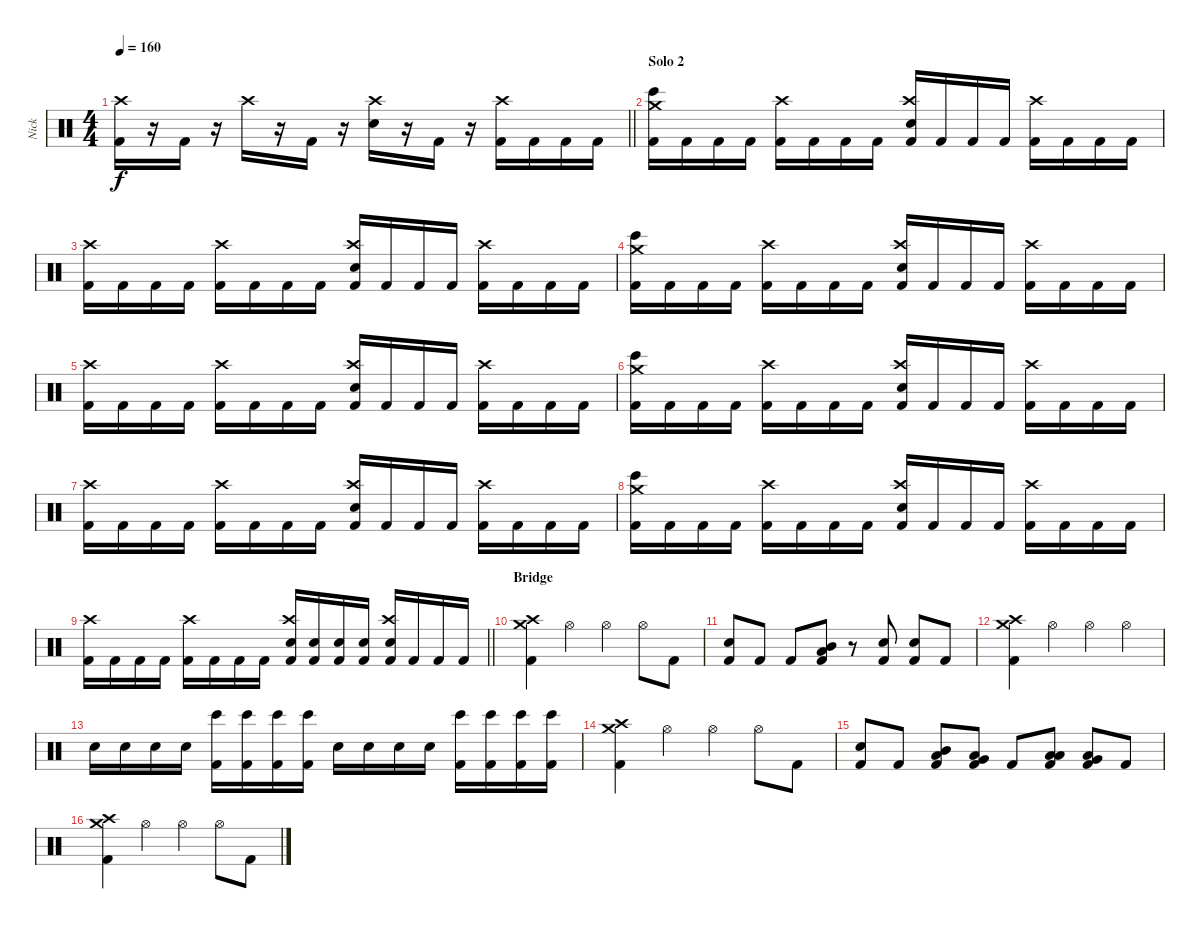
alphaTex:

\track ("Nick" "Nick") {instrument percussion}
\staff {score}
\articulation defaults
\ts (4 4)
\tempo 160
\clef neutral
\barLineRight lightlight
\ks c
("Kick (hit) 2" "Crash high (hit)").16{dy f} r.16 "Kick (hit) 2".16 r.16 "Crash high (hit)".16 r.16 "Kick (hit) 2".16 r.16 ("Electric Snare (hit)" "Crash high (hit)").16 r.16 "Kick (hit) 2".16 r.16 ("Kick (hit) 2" "Crash high (hit)").16 "Kick (hit) 2".16 "Kick (hit) 2".16 "Kick (hit) 2".16 |
\section ("" "Solo 2")
("Kick (hit) 2" "Bongo High (hit)" "Crash medium (hit)").16 "Kick (hit) 2".16 "Kick (hit) 2".16 "Kick (hit) 2".16 ("Kick (hit) 2" "Crash high (hit)").16 "Kick (hit) 2".16 "Kick (hit) 2".16 "Kick (hit) 2".16 ("Kick (hit) 2" "Electric Snare (hit)" "Crash high (hit)").16 "Kick (hit) 2".16 "Kick (hit) 2".16 "Kick (hit) 2".16 ("Kick (hit) 2" "Crash high (hit)").16 "Kick (hit) 2".16 "Kick (hit) 2".16 "Kick (hit) 2".16 |
("Kick (hit) 2" "Crash high (hit)").16 "Kick (hit) 2".16 "Kick (hit) 2".16 "Kick (hit) 2".16 ("Kick (hit) 2" "Crash high (hit)").16 "Kick (hit) 2".16 "Kick (hit) 2".16 "Kick (hit) 2".16 ("Kick (hit) 2" "Electric Snare (hit)" "Crash high (hit)").16 "Kick (hit) 2".16 "Kick (hit) 2".16 "Kick (hit) 2".16 ("Kick (hit) 2" "Crash high (hit)").16 "Kick (hit) 2".16 "Kick (hit) 2".16 "Kick (hit) 2".16 |
("Kick (hit) 2" "Bongo High (hit)" "Crash medium (hit)").16 "Kick (hit) 2".16 "Kick (hit) 2".16 "Kick (hit) 2".16 ("Kick (hit) 2" "Crash high (hit)").16 "Kick (hit) 2".16 "Kick (hit) 2".16 "Kick (hit) 2".16 ("Kick (hit) 2" "Electric Snare (hit)" "Crash high (hit)").16 "Kick (hit) 2".16 "Kick (hit) 2".16 "Kick (hit) 2".16 ("Kick (hit) 2" "Crash high (hit)").16 "Kick (hit) 2".16 "Kick (hit) 2".16 "Kick (hit) 2".16 |
("Kick (hit) 2" "Crash high (hit)").16 "Kick (hit) 2".16 "Kick (hit) 2".16 "Kick (hit) 2".16 ("Kick (hit) 2" "Crash high (hit)").16 "Kick (hit) 2".16 "Kick (hit) 2".16 "Kick (hit) 2".16 ("Kick (hit) 2" "Electric Snare (hit)" "Crash high (hit)").16 "Kick (hit) 2".16 "Kick (hit) 2".16 "Kick (hit) 2".16 ("Kick (hit) 2" "Crash high (hit)").16 "Kick (hit) 2".16 "Kick (hit) 2".16 "Kick (hit) 2".16 |
("Kick (hit) 2" "Bongo High (hit)" "Crash medium (hit)").16 "Kick (hit) 2".16 "Kick (hit) 2".16 "Kick (hit) 2".16 ("Kick (hit) 2" "Crash high (hit)").16 "Kick (hit) 2".16 "Kick (hit) 2".16 "Kick (hit) 2".16 ("Kick (hit) 2" "Electric Snare (hit)" "Crash high (hit)").16 "Kick (hit) 2".16 "Kick (hit) 2".16 "Kick (hit) 2".16 ("Kick (hit) 2" "Crash high (hit)").16 "Kick (hit) 2".16 "Kick (hit) 2".16 "Kick (hit) 2".16 |
("Kick (hit) 2" "Crash high (hit)").16 "Kick (hit) 2".16 "Kick (hit) 2".16 "Kick (hit) 2".16 ("Kick (hit) 2" "Crash high (hit)").16 "Kick (hit) 2".16 "Kick (hit) 2".16 "Kick (hit) 2".16 ("Kick (hit) 2" "Electric Snare (hit)" "Crash high (hit)").16 "Kick (hit) 2".16 "Kick (hit) 2".16 "Kick (hit) 2".16 ("Kick (hit) 2" "Crash high (hit)").16 "Kick (hit) 2".16 "Kick (hit) 2".16 "Kick (hit) 2".16 |
("Kick (hit) 2" "Bongo High (hit)" "Crash medium (hit)").16 "Kick (hit) 2".16 "Kick (hit) 2".16 "Kick (hit) 2".16 ("Kick (hit) 2" "Crash high (hit)").16 "Kick (hit) 2".16 "Kick (hit) 2".16 "Kick (hit) 2".16 ("Kick (hit) 2" "Electric Snare (hit)" "Crash high (hit)").16 "Kick (hit) 2".16 "Kick (hit) 2".16 "Kick (hit) 2".16 ("Kick (hit) 2" "Crash high (hit)").16 "Kick (hit) 2".16 "Kick (hit) 2".16 "Kick (hit) 2".16 |
\barLineRight lightlight
("Kick (hit) 2" "Crash high (hit)").16 "Kick (hit) 2".16 "Kick (hit) 2".16 "Kick (hit) 2".16 ("Kick (hit) 2" "Crash high (hit)").16 "Kick (hit) 2".16 "Kick (hit) 2".16 "Kick (hit) 2".16 ("Kick (hit) 2" "Electric Snare (hit)" "Crash high (hit)").16 ("Kick (hit) 2" "Electric Snare (hit)").16 ("Kick (hit) 2" "Electric Snare (hit)").16 ("Kick (hit) 2" "Electric Snare (hit)").16 ("Kick (hit) 2" "Electric Snare (hit)" "Crash high (hit)").16 "Kick (hit) 2".16 "Kick (hit) 2".16 "Kick (hit) 2".16 |
\section ("" "Bridge")
("Kick (hit) 2" "Crash high (hit)" "Crash medium (hit)").4 "Hi-Hat (open)".4 "Hi-Hat (open)".4 "Hi-Hat (open)".8 "Kick (hit) 2".8 |
("Kick (hit) 2" "Electric Snare (hit)").8 "Kick (hit) 2".8 "Kick (hit) 2".8 ("Kick (hit) 2" "Low Tom (hit)" "Mid Tom (hit)").8 r.8 ("Kick (hit) 2" "Electric Snare (hit)").8 ("Kick (hit) 2" "Electric Snare (hit)").8 "Kick (hit) 2".8 |
("Kick (hit) 2" "Crash high (hit)" "Crash medium (hit)").4 "Hi-Hat (open)".4 "Hi-Hat (open)".4 "Hi-Hat (open)".4 |
"Electric Snare (hit)".16 "Electric Snare (hit)".16 "Electric Snare (hit)".16 "Electric Snare (hit)".16 ("Kick (hit) 2" "Bongo High (hit)").16 ("Kick (hit) 2" "Bongo High (hit)").16 ("Kick (hit) 2" "Bongo High (hit)").16 ("Kick (hit) 2" "Bongo High (hit)").16 "Electric Snare (hit)".16 "Electric Snare (hit)".16 "Electric Snare (hit)".16 "Electric Snare (hit)".16 ("Kick (hit) 2" "Bongo High (hit)").16 ("Kick (hit) 2" "Bongo High (hit)").16 ("Kick (hit) 2" "Bongo High (hit)").16 ("Kick (hit) 2" "Bongo High (hit)").16 |
("Kick (hit) 2" "Crash high (hit)" "Crash medium (hit)").4 "Hi-Hat (open)".4 "Hi-Hat (open)".4 "Hi-Hat (open)".8 "Kick (hit) 2".8 |
("Kick (hit) 2" "Electric Snare (hit)").8 "Kick (hit) 2".8 ("Kick (hit) 2" "Low Tom (hit)" "Mid Tom (hit)").8 ("Kick (hit) 2" "Low Tom (hit)" "Very Low Tom (hit)").8 "Kick (hit) 2".8 ("Kick (hit) 2" "Low Floor Tom (hit)" "Low Tom (hit)").8 ("Kick (hit) 2" "Low Floor Tom (hit)" "Very Low Tom (hit)").8 "Kick (hit) 2".8 |
("Kick (hit) 2" "Crash high (hit)" "Crash medium (hit)").4 "Hi-Hat (open)".4 "Hi-Hat (open)".4 "Hi-Hat (open)".8 "Kick (hit) 2".8
